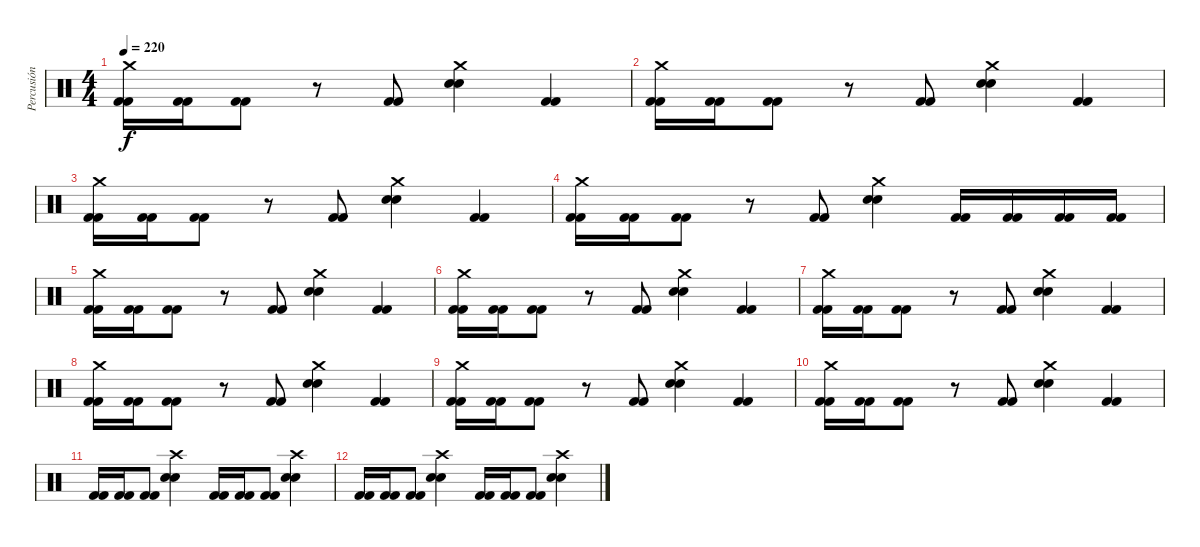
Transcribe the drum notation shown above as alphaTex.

\track ("Percusión" "Percusión") {instrument percussion}
\staff {score}
\articulation defaults
\ts (4 4)
\tempo 220
\clef neutral
\ks c
("Kick (hit) 2" "Kick (hit) 2" "Crash medium (hit)").16{dy f} ("Kick (hit) 2" "Kick (hit) 2").16 ("Kick (hit) 2" "Kick (hit) 2").8 r.8 ("Kick (hit) 2" "Kick (hit) 2").8 ("Electric Snare (hit)" "Electric Snare (hit)" "Crash medium (hit)").4 ("Kick (hit) 2" "Kick (hit) 2").4 |
("Kick (hit) 2" "Kick (hit) 2" "Crash medium (hit)").16 ("Kick (hit) 2" "Kick (hit) 2").16 ("Kick (hit) 2" "Kick (hit) 2").8 r.8 ("Kick (hit) 2" "Kick (hit) 2").8 ("Electric Snare (hit)" "Electric Snare (hit)" "Crash medium (hit)").4 ("Kick (hit) 2" "Kick (hit) 2").4 |
("Kick (hit) 2" "Kick (hit) 2" "Crash medium (hit)").16 ("Kick (hit) 2" "Kick (hit) 2").16 ("Kick (hit) 2" "Kick (hit) 2").8 r.8 ("Kick (hit) 2" "Kick (hit) 2").8 ("Electric Snare (hit)" "Electric Snare (hit)" "Crash medium (hit)").4 ("Kick (hit) 2" "Kick (hit) 2").4 |
("Kick (hit) 2" "Kick (hit) 2" "Crash medium (hit)").16 ("Kick (hit) 2" "Kick (hit) 2").16 ("Kick (hit) 2" "Kick (hit) 2").8 r.8 ("Kick (hit) 2" "Kick (hit) 2").8 ("Electric Snare (hit)" "Electric Snare (hit)" "Crash medium (hit)").4 ("Kick (hit) 2" "Kick (hit) 2").16 ("Kick (hit) 2" "Kick (hit) 2").16 ("Kick (hit) 2" "Kick (hit) 2").16 ("Kick (hit) 2" "Kick (hit) 2").16 |
("Kick (hit) 2" "Kick (hit) 2" "Crash medium (hit)").16 ("Kick (hit) 2" "Kick (hit) 2").16 ("Kick (hit) 2" "Kick (hit) 2").8 r.8 ("Kick (hit) 2" "Kick (hit) 2").8 ("Electric Snare (hit)" "Electric Snare (hit)" "Crash medium (hit)").4 ("Kick (hit) 2" "Kick (hit) 2").4 |
("Kick (hit) 2" "Kick (hit) 2" "Crash medium (hit)").16 ("Kick (hit) 2" "Kick (hit) 2").16 ("Kick (hit) 2" "Kick (hit) 2").8 r.8 ("Kick (hit) 2" "Kick (hit) 2").8 ("Electric Snare (hit)" "Electric Snare (hit)" "Crash medium (hit)").4 ("Kick (hit) 2" "Kick (hit) 2").4 |
("Kick (hit) 2" "Kick (hit) 2" "Crash medium (hit)").16 ("Kick (hit) 2" "Kick (hit) 2").16 ("Kick (hit) 2" "Kick (hit) 2").8 r.8 ("Kick (hit) 2" "Kick (hit) 2").8 ("Electric Snare (hit)" "Electric Snare (hit)" "Crash medium (hit)").4 ("Kick (hit) 2" "Kick (hit) 2").4 |
("Kick (hit) 2" "Kick (hit) 2" "Crash medium (hit)").16 ("Kick (hit) 2" "Kick (hit) 2").16 ("Kick (hit) 2" "Kick (hit) 2").8 r.8 ("Kick (hit) 2" "Kick (hit) 2").8 ("Electric Snare (hit)" "Electric Snare (hit)" "Crash medium (hit)").4 ("Kick (hit) 2" "Kick (hit) 2").4 |
("Kick (hit) 2" "Kick (hit) 2" "Crash medium (hit)").16 ("Kick (hit) 2" "Kick (hit) 2").16 ("Kick (hit) 2" "Kick (hit) 2").8 r.8 ("Kick (hit) 2" "Kick (hit) 2").8 ("Electric Snare (hit)" "Electric Snare (hit)" "Crash medium (hit)").4 ("Kick (hit) 2" "Kick (hit) 2").4 |
("Kick (hit) 2" "Kick (hit) 2" "Crash medium (hit)").16 ("Kick (hit) 2" "Kick (hit) 2").16 ("Kick (hit) 2" "Kick (hit) 2").8 r.8 ("Kick (hit) 2" "Kick (hit) 2").8 ("Electric Snare (hit)" "Electric Snare (hit)" "Crash medium (hit)").4 ("Kick (hit) 2" "Kick (hit) 2").4 |
("Kick (hit) 2" "Kick (hit) 2").16 ("Kick (hit) 2" "Kick (hit) 2").16 ("Kick (hit) 2" "Kick (hit) 2").8 ("Electric Snare (hit)" "Electric Snare (hit)" "Crash high (hit)").4 ("Kick (hit) 2" "Kick (hit) 2").16 ("Kick (hit) 2" "Kick (hit) 2").16 ("Kick (hit) 2" "Kick (hit) 2").8 ("Electric Snare (hit)" "Electric Snare (hit)" "Crash high (hit)").4 |
("Kick (hit) 2" "Kick (hit) 2").16 ("Kick (hit) 2" "Kick (hit) 2").16 ("Kick (hit) 2" "Kick (hit) 2").8 ("Electric Snare (hit)" "Electric Snare (hit)" "Crash high (hit)").4 ("Kick (hit) 2" "Kick (hit) 2").16 ("Kick (hit) 2" "Kick (hit) 2").16 ("Kick (hit) 2" "Kick (hit) 2").8 ("Electric Snare (hit)" "Electric Snare (hit)" "Crash high (hit)").4
